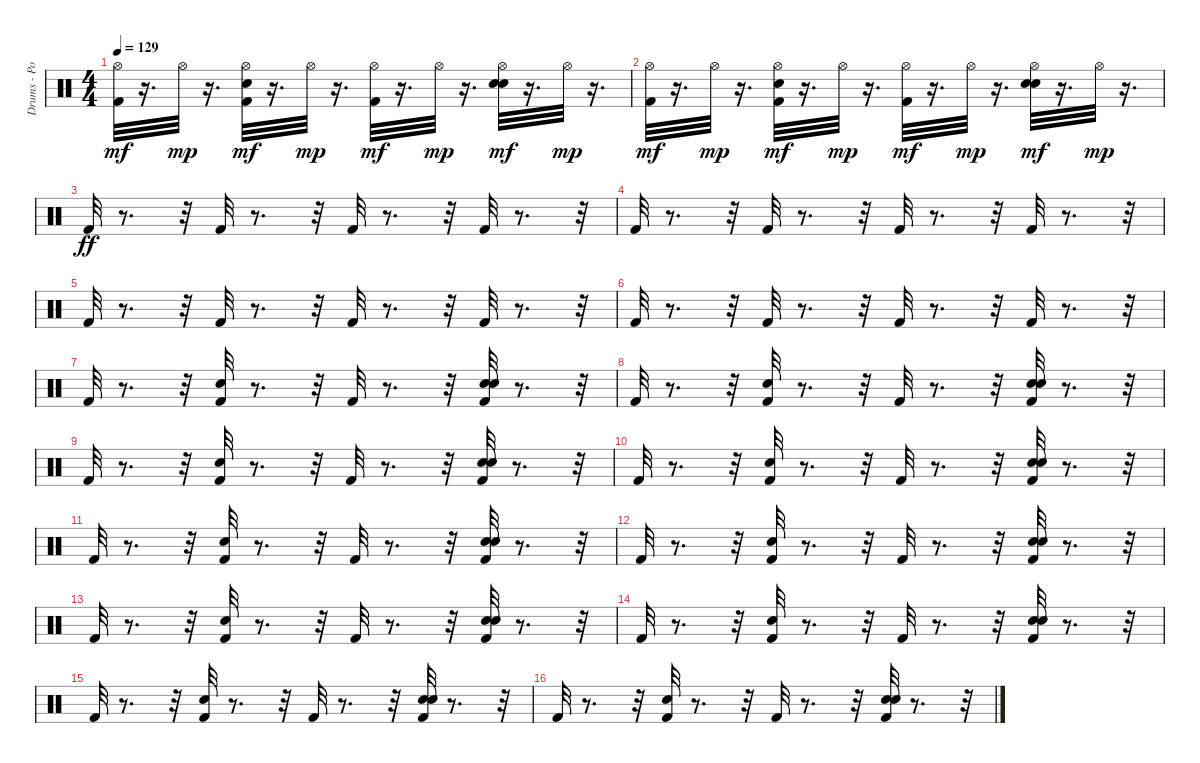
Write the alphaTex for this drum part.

\track ("Drums - Po" "Drums - Po") {instrument percussion}
\staff {score}
\articulation defaults
\ts (4 4)
\tempo 129
\clef neutral
\ks c
("Kick (hit) 2" "Hi-Hat (open)").32{dy mf} r.16{d} "Hi-Hat (open)".32{dy mp} r.16{d} ("Kick (hit) 2" "Snare (hit) 2" "Hi-Hat (open)").32{dy mf} r.16{d} "Hi-Hat (open)".32{dy mp} r.16{d} ("Kick (hit) 2" "Hi-Hat (open)").32{dy mf} r.16{d} "Hi-Hat (open)".32{dy mp} r.16{d} ("Snare (hit) 2" "Hand Clap (hit)" "Hi-Hat (open)").32{dy mf} r.16{d} "Hi-Hat (open)".32{dy mp} r.16{d} |
("Kick (hit) 2" "Hi-Hat (open)").32{dy mf} r.16{d} "Hi-Hat (open)".32{dy mp} r.16{d} ("Kick (hit) 2" "Snare (hit) 2" "Hi-Hat (open)").32{dy mf} r.16{d} "Hi-Hat (open)".32{dy mp} r.16{d} ("Kick (hit) 2" "Hi-Hat (open)").32{dy mf} r.16{d} "Hi-Hat (open)".32{dy mp} r.16{d} ("Snare (hit) 2" "Hand Clap (hit)" "Hi-Hat (open)").32{dy mf} r.16{d} "Hi-Hat (open)".32{dy mp} r.16{d} |
"Kick (hit) 2".32{dy ff} r.8{d} r.32 "Kick (hit) 2".32 r.8{d} r.32 "Kick (hit) 2".32 r.8{d} r.32 "Kick (hit) 2".32 r.8{d} r.32 |
"Kick (hit) 2".32 r.8{d} r.32 "Kick (hit) 2".32 r.8{d} r.32 "Kick (hit) 2".32 r.8{d} r.32 "Kick (hit) 2".32 r.8{d} r.32 |
"Kick (hit) 2".32 r.8{d} r.32 "Kick (hit) 2".32 r.8{d} r.32 "Kick (hit) 2".32 r.8{d} r.32 "Kick (hit) 2".32 r.8{d} r.32 |
"Kick (hit) 2".32 r.8{d} r.32 "Kick (hit) 2".32 r.8{d} r.32 "Kick (hit) 2".32 r.8{d} r.32 "Kick (hit) 2".32 r.8{d} r.32 |
"Kick (hit) 2".32 r.8{d} r.32 ("Kick (hit) 2" "Snare (hit) 2").32 r.8{d} r.32 "Kick (hit) 2".32 r.8{d} r.32 ("Kick (hit) 2" "Snare (hit) 2" "Hand Clap (hit)").32 r.8{d} r.32 |
"Kick (hit) 2".32 r.8{d} r.32 ("Kick (hit) 2" "Snare (hit) 2").32 r.8{d} r.32 "Kick (hit) 2".32 r.8{d} r.32 ("Kick (hit) 2" "Snare (hit) 2" "Hand Clap (hit)").32 r.8{d} r.32 |
"Kick (hit) 2".32 r.8{d} r.32 ("Kick (hit) 2" "Snare (hit) 2").32 r.8{d} r.32 "Kick (hit) 2".32 r.8{d} r.32 ("Kick (hit) 2" "Snare (hit) 2" "Hand Clap (hit)").32 r.8{d} r.32 |
"Kick (hit) 2".32 r.8{d} r.32 ("Kick (hit) 2" "Snare (hit) 2").32 r.8{d} r.32 "Kick (hit) 2".32 r.8{d} r.32 ("Kick (hit) 2" "Snare (hit) 2" "Hand Clap (hit)").32 r.8{d} r.32 |
"Kick (hit) 2".32 r.8{d} r.32 ("Kick (hit) 2" "Snare (hit) 2").32 r.8{d} r.32 "Kick (hit) 2".32 r.8{d} r.32 ("Kick (hit) 2" "Snare (hit) 2" "Hand Clap (hit)").32 r.8{d} r.32 |
"Kick (hit) 2".32 r.8{d} r.32 ("Kick (hit) 2" "Snare (hit) 2").32 r.8{d} r.32 "Kick (hit) 2".32 r.8{d} r.32 ("Kick (hit) 2" "Snare (hit) 2" "Hand Clap (hit)").32 r.8{d} r.32 |
"Kick (hit) 2".32 r.8{d} r.32 ("Kick (hit) 2" "Snare (hit) 2").32 r.8{d} r.32 "Kick (hit) 2".32 r.8{d} r.32 ("Kick (hit) 2" "Snare (hit) 2" "Hand Clap (hit)").32 r.8{d} r.32 |
"Kick (hit) 2".32 r.8{d} r.32 ("Kick (hit) 2" "Snare (hit) 2").32 r.8{d} r.32 "Kick (hit) 2".32 r.8{d} r.32 ("Kick (hit) 2" "Snare (hit) 2" "Hand Clap (hit)").32 r.8{d} r.32 |
"Kick (hit) 2".32 r.8{d} r.32 ("Kick (hit) 2" "Snare (hit) 2").32 r.8{d} r.32 "Kick (hit) 2".32 r.8{d} r.32 ("Kick (hit) 2" "Snare (hit) 2" "Hand Clap (hit)").32 r.8{d} r.32 |
"Kick (hit) 2".32 r.8{d} r.32 ("Kick (hit) 2" "Snare (hit) 2").32 r.8{d} r.32 "Kick (hit) 2".32 r.8{d} r.32 ("Kick (hit) 2" "Snare (hit) 2" "Hand Clap (hit)").32 r.8{d} r.32
